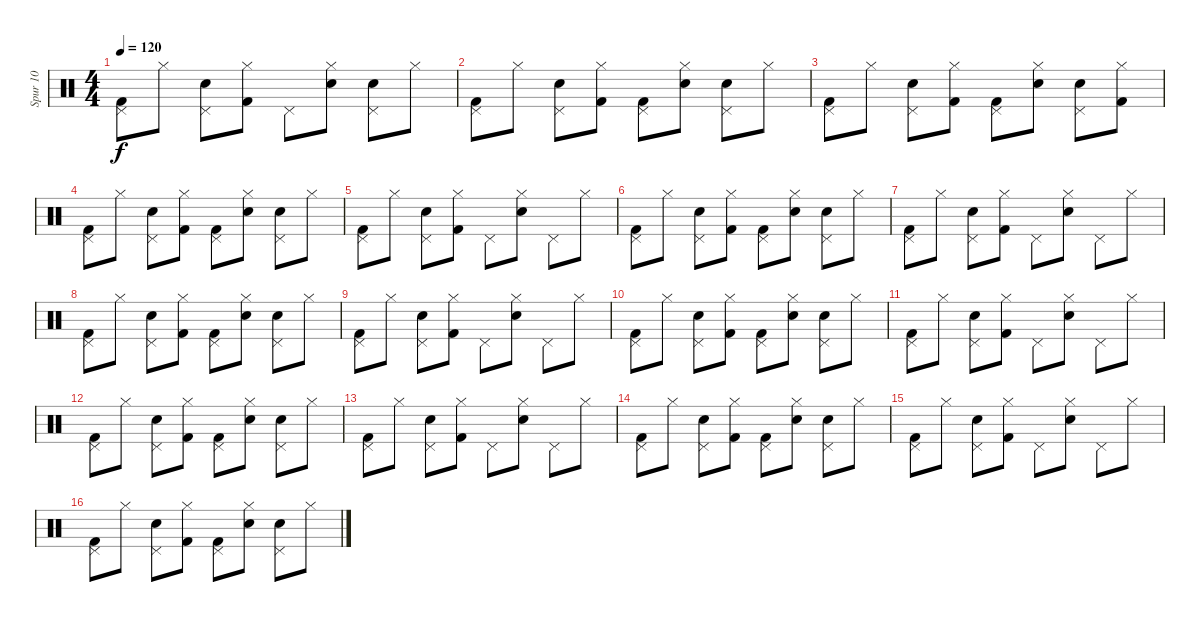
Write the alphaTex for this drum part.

\track ("Spur 10" "Spur 10") {instrument percussion}
\staff {score}
\articulation defaults
\ts (4 4)
\tempo 120
\clef neutral
\ks c
("Pedal Hi-Hat (hit)" "Kick (hit) 2").8{dy f} "Hi-Hat (closed)".8 ("Pedal Hi-Hat (hit)" "Snare (hit) 2").8 ("Hi-Hat (closed)" "Kick (hit) 2").8 "Pedal Hi-Hat (hit)".8 ("Hi-Hat (closed)" "Snare (hit) 2").8 ("Pedal Hi-Hat (hit)" "Snare (hit) 2").8 "Hi-Hat (closed)".8 |
("Pedal Hi-Hat (hit)" "Kick (hit) 2").8 "Hi-Hat (closed)".8 ("Pedal Hi-Hat (hit)" "Snare (hit) 2").8 ("Hi-Hat (closed)" "Kick (hit) 2").8 ("Pedal Hi-Hat (hit)" "Kick (hit) 2").8 ("Hi-Hat (closed)" "Snare (hit) 2").8 ("Pedal Hi-Hat (hit)" "Snare (hit) 2").8 "Hi-Hat (closed)".8 |
("Pedal Hi-Hat (hit)" "Kick (hit) 2").8 "Hi-Hat (closed)".8 ("Pedal Hi-Hat (hit)" "Snare (hit) 2").8 ("Hi-Hat (closed)" "Kick (hit) 2").8 ("Pedal Hi-Hat (hit)" "Kick (hit) 2").8 ("Hi-Hat (closed)" "Snare (hit) 2").8 ("Pedal Hi-Hat (hit)" "Snare (hit) 2").8 ("Kick (hit) 2" "Hi-Hat (closed)").8 |
("Pedal Hi-Hat (hit)" "Kick (hit) 2").8 "Hi-Hat (closed)".8 ("Pedal Hi-Hat (hit)" "Snare (hit) 2").8 ("Hi-Hat (closed)" "Kick (hit) 2").8 ("Pedal Hi-Hat (hit)" "Kick (hit) 2").8 ("Hi-Hat (closed)" "Snare (hit) 2").8 ("Pedal Hi-Hat (hit)" "Snare (hit) 2").8 "Hi-Hat (closed)".8 |
("Pedal Hi-Hat (hit)" "Kick (hit) 2").8 "Hi-Hat (closed)".8 ("Pedal Hi-Hat (hit)" "Snare (hit) 2").8 ("Hi-Hat (closed)" "Kick (hit) 2").8 "Pedal Hi-Hat (hit)".8 ("Hi-Hat (closed)" "Snare (hit) 2").8 "Pedal Hi-Hat (hit)".8 "Hi-Hat (closed)".8 |
("Pedal Hi-Hat (hit)" "Kick (hit) 2").8 "Hi-Hat (closed)".8 ("Pedal Hi-Hat (hit)" "Snare (hit) 2").8 ("Hi-Hat (closed)" "Kick (hit) 2").8 ("Pedal Hi-Hat (hit)" "Kick (hit) 2").8 ("Hi-Hat (closed)" "Snare (hit) 2").8 ("Pedal Hi-Hat (hit)" "Snare (hit) 2").8 "Hi-Hat (closed)".8 |
("Pedal Hi-Hat (hit)" "Kick (hit) 2").8 "Hi-Hat (closed)".8 ("Pedal Hi-Hat (hit)" "Snare (hit) 2").8 ("Hi-Hat (closed)" "Kick (hit) 2").8 "Pedal Hi-Hat (hit)".8 ("Hi-Hat (closed)" "Snare (hit) 2").8 "Pedal Hi-Hat (hit)".8 "Hi-Hat (closed)".8 |
("Pedal Hi-Hat (hit)" "Kick (hit) 2").8 "Hi-Hat (closed)".8 ("Pedal Hi-Hat (hit)" "Snare (hit) 2").8 ("Hi-Hat (closed)" "Kick (hit) 2").8 ("Pedal Hi-Hat (hit)" "Kick (hit) 2").8 ("Hi-Hat (closed)" "Snare (hit) 2").8 ("Pedal Hi-Hat (hit)" "Snare (hit) 2").8 "Hi-Hat (closed)".8 |
("Pedal Hi-Hat (hit)" "Kick (hit) 2").8 "Hi-Hat (closed)".8 ("Pedal Hi-Hat (hit)" "Snare (hit) 2").8 ("Hi-Hat (closed)" "Kick (hit) 2").8 "Pedal Hi-Hat (hit)".8 ("Hi-Hat (closed)" "Snare (hit) 2").8 "Pedal Hi-Hat (hit)".8 "Hi-Hat (closed)".8 |
("Pedal Hi-Hat (hit)" "Kick (hit) 2").8 "Hi-Hat (closed)".8 ("Pedal Hi-Hat (hit)" "Snare (hit) 2").8 ("Hi-Hat (closed)" "Kick (hit) 2").8 ("Pedal Hi-Hat (hit)" "Kick (hit) 2").8 ("Hi-Hat (closed)" "Snare (hit) 2").8 ("Pedal Hi-Hat (hit)" "Snare (hit) 2").8 "Hi-Hat (closed)".8 |
("Pedal Hi-Hat (hit)" "Kick (hit) 2").8 "Hi-Hat (closed)".8 ("Pedal Hi-Hat (hit)" "Snare (hit) 2").8 ("Hi-Hat (closed)" "Kick (hit) 2").8 "Pedal Hi-Hat (hit)".8 ("Hi-Hat (closed)" "Snare (hit) 2").8 "Pedal Hi-Hat (hit)".8 "Hi-Hat (closed)".8 |
("Pedal Hi-Hat (hit)" "Kick (hit) 2").8 "Hi-Hat (closed)".8 ("Pedal Hi-Hat (hit)" "Snare (hit) 2").8 ("Hi-Hat (closed)" "Kick (hit) 2").8 ("Pedal Hi-Hat (hit)" "Kick (hit) 2").8 ("Hi-Hat (closed)" "Snare (hit) 2").8 ("Pedal Hi-Hat (hit)" "Snare (hit) 2").8 "Hi-Hat (closed)".8 |
("Pedal Hi-Hat (hit)" "Kick (hit) 2").8 "Hi-Hat (closed)".8 ("Pedal Hi-Hat (hit)" "Snare (hit) 2").8 ("Hi-Hat (closed)" "Kick (hit) 2").8 "Pedal Hi-Hat (hit)".8 ("Hi-Hat (closed)" "Snare (hit) 2").8 "Pedal Hi-Hat (hit)".8 "Hi-Hat (closed)".8 |
("Pedal Hi-Hat (hit)" "Kick (hit) 2").8 "Hi-Hat (closed)".8 ("Pedal Hi-Hat (hit)" "Snare (hit) 2").8 ("Hi-Hat (closed)" "Kick (hit) 2").8 ("Pedal Hi-Hat (hit)" "Kick (hit) 2").8 ("Hi-Hat (closed)" "Snare (hit) 2").8 ("Pedal Hi-Hat (hit)" "Snare (hit) 2").8 "Hi-Hat (closed)".8 |
("Pedal Hi-Hat (hit)" "Kick (hit) 2").8 "Hi-Hat (closed)".8 ("Pedal Hi-Hat (hit)" "Snare (hit) 2").8 ("Hi-Hat (closed)" "Kick (hit) 2").8 "Pedal Hi-Hat (hit)".8 ("Hi-Hat (closed)" "Snare (hit) 2").8 "Pedal Hi-Hat (hit)".8 "Hi-Hat (closed)".8 |
("Pedal Hi-Hat (hit)" "Kick (hit) 2").8 "Hi-Hat (closed)".8 ("Pedal Hi-Hat (hit)" "Snare (hit) 2").8 ("Hi-Hat (closed)" "Kick (hit) 2").8 ("Pedal Hi-Hat (hit)" "Kick (hit) 2").8 ("Hi-Hat (closed)" "Snare (hit) 2").8 ("Pedal Hi-Hat (hit)" "Snare (hit) 2").8 "Hi-Hat (closed)".8
